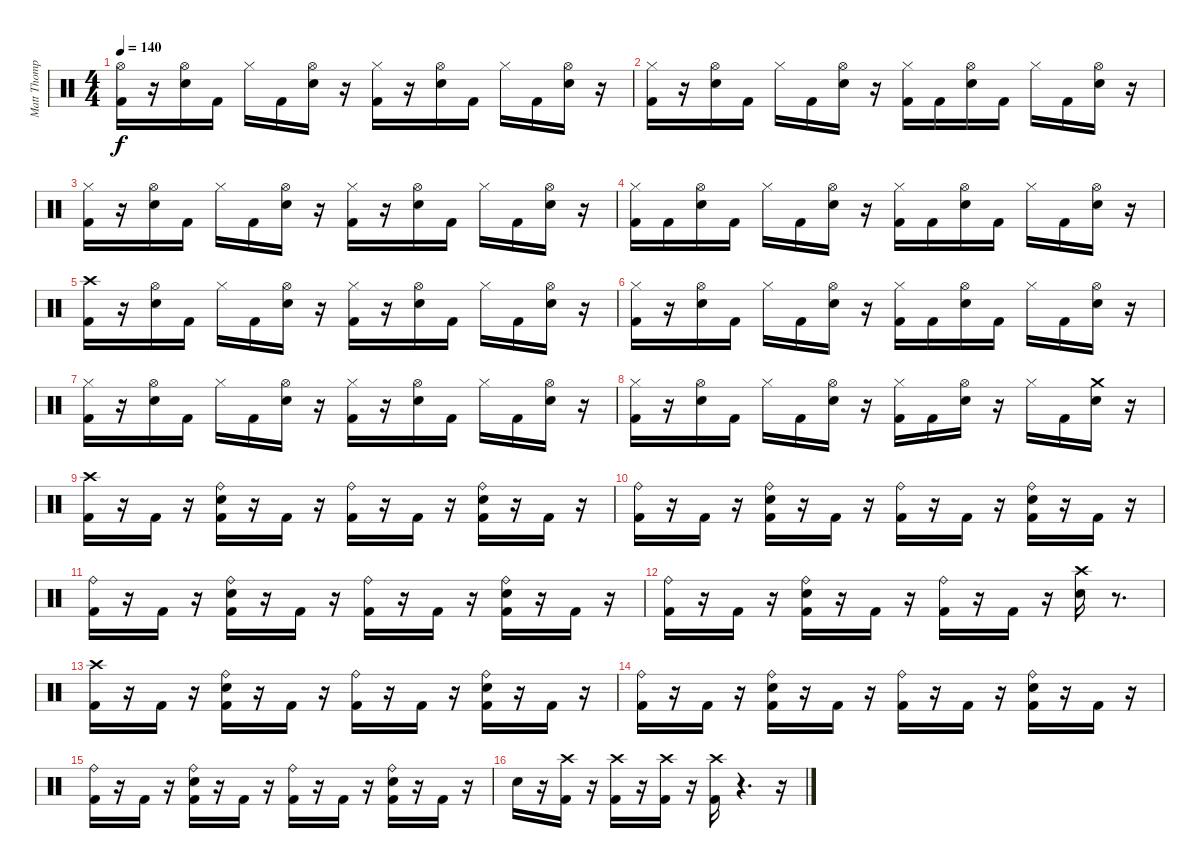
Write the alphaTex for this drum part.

\track ("Matt Thompson" "Matt Thomp") {instrument percussion}
\staff {score}
\articulation defaults
\ts (4 4)
\tempo 140
\clef neutral
\ks c
("Hi-Hat (open)" "Kick (hit) 2").16{dy f} r.16 ("Hi-Hat (open)" "Snare (hit) 2").16 "Kick (hit) 2".16 "Hi-Hat (closed)".16 "Kick (hit) 2".16 ("Hi-Hat (open)" "Snare (hit) 2").16 r.16 ("Hi-Hat (closed)" "Kick (hit) 2").16 r.16 ("Hi-Hat (open)" "Snare (hit) 2").16 "Kick (hit) 2".16 "Hi-Hat (closed)".16 "Kick (hit) 2".16 ("Hi-Hat (open)" "Snare (hit) 2").16 r.16 |
("Hi-Hat (closed)" "Kick (hit) 2").16 r.16 ("Hi-Hat (open)" "Snare (hit) 2").16 "Kick (hit) 2".16 "Hi-Hat (closed)".16 "Kick (hit) 2".16 ("Hi-Hat (open)" "Snare (hit) 2").16 r.16 ("Hi-Hat (closed)" "Kick (hit) 2").16 "Kick (hit) 2".16 ("Hi-Hat (open)" "Snare (hit) 2").16 "Kick (hit) 2".16 "Hi-Hat (closed)".16 "Kick (hit) 2".16 ("Hi-Hat (open)" "Snare (hit) 2").16 r.16 |
("Hi-Hat (closed)" "Kick (hit) 2").16 r.16 ("Hi-Hat (open)" "Snare (hit) 2").16 "Kick (hit) 2".16 "Hi-Hat (closed)".16 "Kick (hit) 2".16 ("Hi-Hat (open)" "Snare (hit) 2").16 r.16 ("Hi-Hat (closed)" "Kick (hit) 2").16 r.16 ("Hi-Hat (open)" "Snare (hit) 2").16 "Kick (hit) 2".16 "Hi-Hat (closed)".16 "Kick (hit) 2".16 ("Hi-Hat (open)" "Snare (hit) 2").16 r.16 |
("Hi-Hat (closed)" "Kick (hit) 2").16 "Kick (hit) 2".16 ("Hi-Hat (open)" "Snare (hit) 2").16 "Kick (hit) 2".16 "Hi-Hat (closed)".16 "Kick (hit) 2".16 ("Hi-Hat (open)" "Snare (hit) 2").16 r.16 ("Hi-Hat (closed)" "Kick (hit) 2").16 "Kick (hit) 2".16 ("Hi-Hat (open)" "Snare (hit) 2").16 "Kick (hit) 2".16 "Hi-Hat (closed)".16 "Kick (hit) 2".16 ("Hi-Hat (open)" "Snare (hit) 2").16 r.16 |
("Crash high (hit)" "Kick (hit) 2").16 r.16 ("Hi-Hat (open)" "Snare (hit) 2").16 "Kick (hit) 2".16 "Hi-Hat (closed)".16 "Kick (hit) 2".16 ("Hi-Hat (open)" "Snare (hit) 2").16 r.16 ("Hi-Hat (closed)" "Kick (hit) 2").16 r.16 ("Hi-Hat (open)" "Snare (hit) 2").16 "Kick (hit) 2".16 "Hi-Hat (closed)".16 "Kick (hit) 2".16 ("Hi-Hat (open)" "Snare (hit) 2").16 r.16 |
("Hi-Hat (closed)" "Kick (hit) 2").16 r.16 ("Hi-Hat (open)" "Snare (hit) 2").16 "Kick (hit) 2".16 "Hi-Hat (closed)".16 "Kick (hit) 2".16 ("Hi-Hat (open)" "Snare (hit) 2").16 r.16 ("Hi-Hat (closed)" "Kick (hit) 2").16 "Kick (hit) 2".16 ("Hi-Hat (open)" "Snare (hit) 2").16 "Kick (hit) 2".16 "Hi-Hat (closed)".16 "Kick (hit) 2".16 ("Hi-Hat (open)" "Snare (hit) 2").16 r.16 |
("Hi-Hat (closed)" "Kick (hit) 2").16 r.16 ("Hi-Hat (open)" "Snare (hit) 2").16 "Kick (hit) 2".16 "Hi-Hat (closed)".16 "Kick (hit) 2".16 ("Hi-Hat (open)" "Snare (hit) 2").16 r.16 ("Hi-Hat (closed)" "Kick (hit) 2").16 r.16 ("Hi-Hat (open)" "Snare (hit) 2").16 "Kick (hit) 2".16 "Hi-Hat (closed)".16 "Kick (hit) 2".16 ("Hi-Hat (open)" "Snare (hit) 2").16 r.16 |
("Hi-Hat (closed)" "Kick (hit) 2").16 r.16 ("Hi-Hat (open)" "Snare (hit) 2").16 "Kick (hit) 2".16 "Hi-Hat (closed)".16 "Kick (hit) 2".16 ("Hi-Hat (open)" "Snare (hit) 2").16 r.16 ("Hi-Hat (closed)" "Kick (hit) 2").16 "Kick (hit) 2".16 ("Hi-Hat (open)" "Snare (hit) 2").16 r.16 "Hi-Hat (closed)".16 "Kick (hit) 2".16 ("Crash medium (hit)" "Snare (hit) 2").16 r.16 |
("Crash high (hit)" "Kick (hit) 2").16 r.16 "Kick (hit) 2".16 r.16 ("Ride (bell)" "Snare (hit) 2" "Kick (hit) 2").16 r.16 "Kick (hit) 2".16 r.16 ("Ride (bell)" "Kick (hit) 2").16 r.16 "Kick (hit) 2".16 r.16 ("Ride (bell)" "Snare (hit) 2" "Kick (hit) 2").16 r.16 "Kick (hit) 2".16 r.16 |
("Ride (bell)" "Kick (hit) 2").16 r.16 "Kick (hit) 2".16 r.16 ("Ride (bell)" "Snare (hit) 2" "Kick (hit) 2").16 r.16 "Kick (hit) 2".16 r.16 ("Ride (bell)" "Kick (hit) 2").16 r.16 "Kick (hit) 2".16 r.16 ("Ride (bell)" "Snare (hit) 2" "Kick (hit) 2").16 r.16 "Kick (hit) 2".16 r.16 |
("Ride (bell)" "Kick (hit) 2").16 r.16 "Kick (hit) 2".16 r.16 ("Ride (bell)" "Snare (hit) 2" "Kick (hit) 2").16 r.16 "Kick (hit) 2".16 r.16 ("Ride (bell)" "Kick (hit) 2").16 r.16 "Kick (hit) 2".16 r.16 ("Ride (bell)" "Snare (hit) 2" "Kick (hit) 2").16 r.16 "Kick (hit) 2".16 r.16 |
("Ride (bell)" "Kick (hit) 2").16 r.16 "Kick (hit) 2".16 r.16 ("Kick (hit) 2" "Ride (bell)" "Snare (hit) 2").16 r.16 "Kick (hit) 2".16 r.16 ("Ride (bell)" "Kick (hit) 2").16 r.16 "Kick (hit) 2".16 r.16 ("Crash high (hit)" "Snare (hit) 2").16 r.8{d} |
("Crash high (hit)" "Kick (hit) 2").16 r.16 "Kick (hit) 2".16 r.16 ("Ride (bell)" "Snare (hit) 2" "Kick (hit) 2").16 r.16 "Kick (hit) 2".16 r.16 ("Ride (bell)" "Kick (hit) 2").16 r.16 "Kick (hit) 2".16 r.16 ("Ride (bell)" "Snare (hit) 2" "Kick (hit) 2").16 r.16 "Kick (hit) 2".16 r.16 |
("Ride (bell)" "Kick (hit) 2").16 r.16 "Kick (hit) 2".16 r.16 ("Ride (bell)" "Snare (hit) 2" "Kick (hit) 2").16 r.16 "Kick (hit) 2".16 r.16 ("Ride (bell)" "Kick (hit) 2").16 r.16 "Kick (hit) 2".16 r.16 ("Ride (bell)" "Snare (hit) 2" "Kick (hit) 2").16 r.16 "Kick (hit) 2".16 r.16 |
("Ride (bell)" "Kick (hit) 2").16 r.16 "Kick (hit) 2".16 r.16 ("Ride (bell)" "Snare (hit) 2" "Kick (hit) 2").16 r.16 "Kick (hit) 2".16 r.16 ("Ride (bell)" "Kick (hit) 2").16 r.16 "Kick (hit) 2".16 r.16 ("Ride (bell)" "Snare (hit) 2" "Kick (hit) 2").16 r.16 "Kick (hit) 2".16 r.16 |
"Snare (hit) 2".16 r.16 ("Crash high (hit)" "Kick (hit) 2").16 r.16 ("Crash high (hit)" "Kick (hit) 2").16 r.16 ("Crash high (hit)" "Kick (hit) 2").16 r.16 ("Crash high (hit)" "Kick (hit) 2").16 r.4{d} r.16
